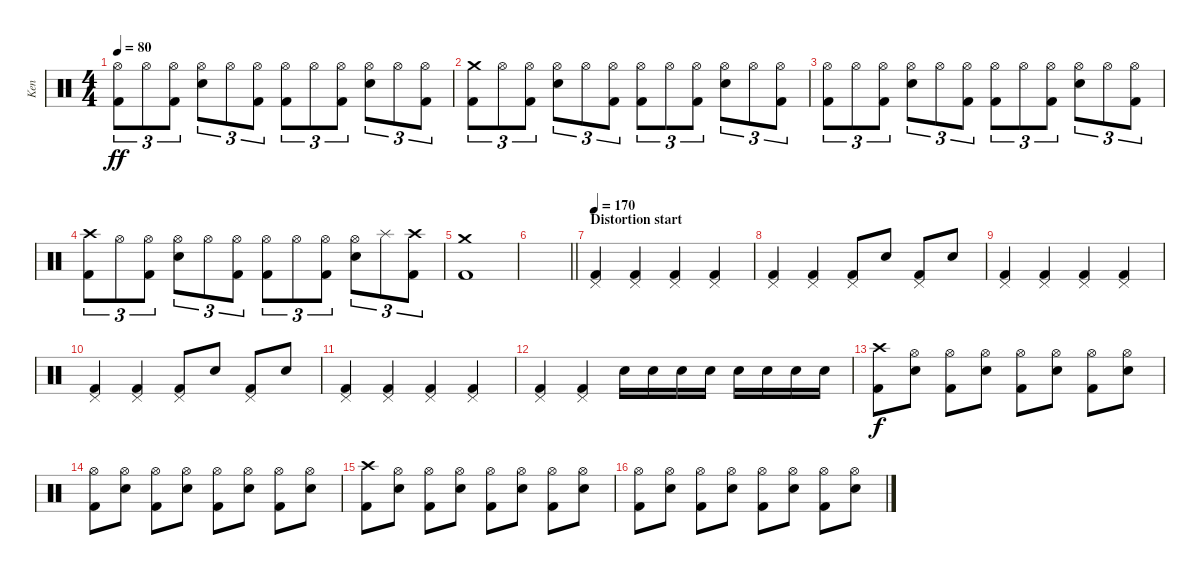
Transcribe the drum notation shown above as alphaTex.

\track ("Ken" "Ken") {instrument percussion}
\staff {score}
\articulation defaults
\ts (4 4)
\tempo 80
\clef neutral
\ks c
("Hi-Hat (open)" "Kick (hit) 2").8{tu (3 2) dy ff} "Hi-Hat (open)".8{tu (3 2)} ("Hi-Hat (open)" "Kick (hit) 2").8{tu (3 2)} ("Hi-Hat (open)" "Snare (hit) 2").8{tu (3 2)} "Hi-Hat (open)".8{tu (3 2)} ("Hi-Hat (open)" "Kick (hit) 2").8{tu (3 2)} ("Hi-Hat (open)" "Kick (hit) 2").8{tu (3 2)} "Hi-Hat (open)".8{tu (3 2)} ("Hi-Hat (open)" "Kick (hit) 2").8{tu (3 2)} ("Hi-Hat (open)" "Snare (hit) 2").8{tu (3 2)} "Hi-Hat (open)".8{tu (3 2)} ("Hi-Hat (open)" "Kick (hit) 2").8{tu (3 2)} |
("Crash medium (hit)" "Kick (hit) 2").8{tu (3 2)} "Hi-Hat (open)".8{tu (3 2)} ("Hi-Hat (open)" "Kick (hit) 2").8{tu (3 2)} ("Hi-Hat (open)" "Snare (hit) 2").8{tu (3 2)} "Hi-Hat (open)".8{tu (3 2)} ("Hi-Hat (open)" "Kick (hit) 2").8{tu (3 2)} ("Hi-Hat (open)" "Kick (hit) 2").8{tu (3 2)} "Hi-Hat (open)".8{tu (3 2)} ("Hi-Hat (open)" "Kick (hit) 2").8{tu (3 2)} ("Hi-Hat (open)" "Snare (hit) 2").8{tu (3 2)} "Hi-Hat (open)".8{tu (3 2)} ("Hi-Hat (open)" "Kick (hit) 2").8{tu (3 2)} |
("Hi-Hat (open)" "Kick (hit) 2").8{tu (3 2)} "Hi-Hat (open)".8{tu (3 2)} ("Hi-Hat (open)" "Kick (hit) 2").8{tu (3 2)} ("Hi-Hat (open)" "Snare (hit) 2").8{tu (3 2)} "Hi-Hat (open)".8{tu (3 2)} ("Hi-Hat (open)" "Kick (hit) 2").8{tu (3 2)} ("Hi-Hat (open)" "Kick (hit) 2").8{tu (3 2)} "Hi-Hat (open)".8{tu (3 2)} ("Hi-Hat (open)" "Kick (hit) 2").8{tu (3 2)} ("Hi-Hat (open)" "Snare (hit) 2").8{tu (3 2)} "Hi-Hat (open)".8{tu (3 2)} ("Hi-Hat (open)" "Kick (hit) 2").8{tu (3 2)} |
("Crash high (hit)" "Kick (hit) 2").8{tu (3 2)} "Hi-Hat (open)".8{tu (3 2)} ("Hi-Hat (open)" "Kick (hit) 2").8{tu (3 2)} ("Hi-Hat (open)" "Snare (hit) 2").8{tu (3 2)} "Hi-Hat (open)".8{tu (3 2)} ("Hi-Hat (open)" "Kick (hit) 2").8{tu (3 2)} ("Hi-Hat (open)" "Kick (hit) 2").8{tu (3 2)} "Hi-Hat (open)".8{tu (3 2)} ("Hi-Hat (open)" "Kick (hit) 2").8{tu (3 2)} ("Hi-Hat (open)" "Snare (hit) 2").8{tu (3 2)} "Splash (hit)".8{tu (3 2)} ("Crash high (hit)" "Kick (hit) 2").8{tu (3 2)} |
("Crash medium (hit)" "Kick (hit) 2").1 |
\barLineRight lightlight
|
\section ("" "Distortion start")
\tempo 170
("Pedal Hi-Hat (hit)" "Kick (hit) 2").4 ("Pedal Hi-Hat (hit)" "Kick (hit) 2").4 ("Pedal Hi-Hat (hit)" "Kick (hit) 2").4 ("Pedal Hi-Hat (hit)" "Kick (hit) 2").4 |
("Pedal Hi-Hat (hit)" "Kick (hit) 2").4 ("Pedal Hi-Hat (hit)" "Kick (hit) 2").4 ("Pedal Hi-Hat (hit)" "Kick (hit) 2").8 "Snare (hit) 2".8 ("Pedal Hi-Hat (hit)" "Kick (hit) 2").8 "Snare (hit) 2".8 |
("Pedal Hi-Hat (hit)" "Kick (hit) 2").4 ("Pedal Hi-Hat (hit)" "Kick (hit) 2").4 ("Pedal Hi-Hat (hit)" "Kick (hit) 2").4 ("Pedal Hi-Hat (hit)" "Kick (hit) 2").4 |
("Pedal Hi-Hat (hit)" "Kick (hit) 2").4 ("Pedal Hi-Hat (hit)" "Kick (hit) 2").4 ("Pedal Hi-Hat (hit)" "Kick (hit) 2").8 "Snare (hit) 2".8 ("Pedal Hi-Hat (hit)" "Kick (hit) 2").8 "Snare (hit) 2".8 |
("Pedal Hi-Hat (hit)" "Kick (hit) 2").4 ("Pedal Hi-Hat (hit)" "Kick (hit) 2").4 ("Pedal Hi-Hat (hit)" "Kick (hit) 2").4 ("Pedal Hi-Hat (hit)" "Kick (hit) 2").4 |
("Pedal Hi-Hat (hit)" "Kick (hit) 2").4 ("Pedal Hi-Hat (hit)" "Kick (hit) 2").4 "Snare (hit) 2".16 "Snare (hit) 2".16 "Snare (hit) 2".16 "Snare (hit) 2".16 "Snare (hit) 2".16 "Snare (hit) 2".16 "Snare (hit) 2".16 "Snare (hit) 2".16 |
("Crash high (hit)" "Kick (hit) 2").8{dy f} ("Hi-Hat (open)" "Snare (hit) 2").8 ("Hi-Hat (open)" "Kick (hit) 2").8 ("Hi-Hat (open)" "Snare (hit) 2").8 ("Hi-Hat (open)" "Kick (hit) 2").8 ("Hi-Hat (open)" "Snare (hit) 2").8 ("Hi-Hat (open)" "Kick (hit) 2").8 ("Hi-Hat (open)" "Snare (hit) 2").8 |
("Hi-Hat (open)" "Kick (hit) 2").8 ("Hi-Hat (open)" "Snare (hit) 2").8 ("Hi-Hat (open)" "Kick (hit) 2").8 ("Hi-Hat (open)" "Snare (hit) 2").8 ("Hi-Hat (open)" "Kick (hit) 2").8 ("Hi-Hat (open)" "Snare (hit) 2").8 ("Hi-Hat (open)" "Kick (hit) 2").8 ("Hi-Hat (open)" "Snare (hit) 2").8 |
("Crash high (hit)" "Kick (hit) 2").8 ("Hi-Hat (open)" "Snare (hit) 2").8 ("Hi-Hat (open)" "Kick (hit) 2").8 ("Hi-Hat (open)" "Snare (hit) 2").8 ("Hi-Hat (open)" "Kick (hit) 2").8 ("Hi-Hat (open)" "Snare (hit) 2").8 ("Hi-Hat (open)" "Kick (hit) 2").8 ("Hi-Hat (open)" "Snare (hit) 2").8 |
("Hi-Hat (open)" "Kick (hit) 2").8 ("Hi-Hat (open)" "Snare (hit) 2").8 ("Hi-Hat (open)" "Kick (hit) 2").8 ("Hi-Hat (open)" "Snare (hit) 2").8 ("Hi-Hat (open)" "Kick (hit) 2").8 ("Hi-Hat (open)" "Snare (hit) 2").8 ("Hi-Hat (open)" "Kick (hit) 2").8 ("Hi-Hat (open)" "Snare (hit) 2").8
